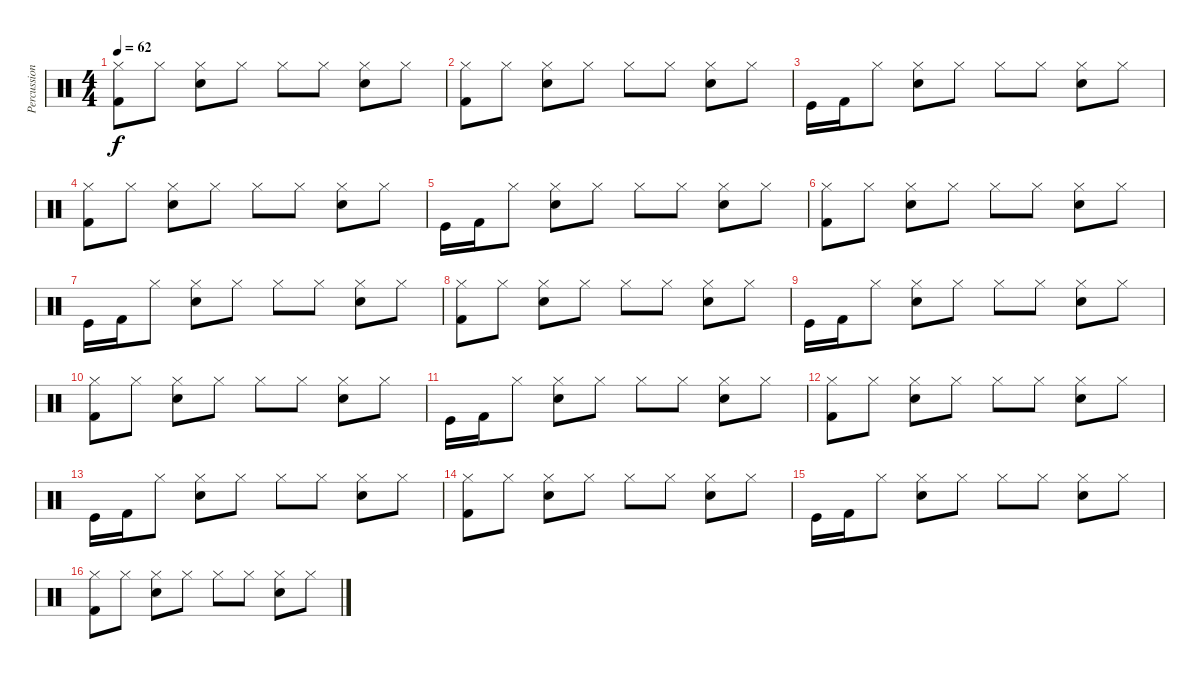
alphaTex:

\track ("Percussion" "Percussion") {instrument percussion}
\staff {score}
\articulation defaults
\ts (4 4)
\tempo 62
\clef neutral
\ks c
("Hi-Hat (closed)" "Kick (hit) 2").8{dy f} "Hi-Hat (closed)".8 ("Hi-Hat (closed)" "Snare (hit) 2").8 "Hi-Hat (closed)".8 "Hi-Hat (closed)".8 "Hi-Hat (closed)".8 ("Hi-Hat (closed)" "Snare (hit) 2").8 "Hi-Hat (closed)".8 |
("Hi-Hat (closed)" "Kick (hit) 2").8 "Hi-Hat (closed)".8 ("Hi-Hat (closed)" "Snare (hit) 2").8 "Hi-Hat (closed)".8 "Hi-Hat (closed)".8 "Hi-Hat (closed)".8 ("Hi-Hat (closed)" "Snare (hit) 2").8 "Hi-Hat (closed)".8 |
"Kick (hit)".16 "Kick (hit) 2".16 "Hi-Hat (closed)".8 ("Hi-Hat (closed)" "Snare (hit) 2").8 "Hi-Hat (closed)".8 "Hi-Hat (closed)".8 "Hi-Hat (closed)".8 ("Hi-Hat (closed)" "Snare (hit) 2").8 "Hi-Hat (closed)".8 |
("Hi-Hat (closed)" "Kick (hit) 2").8 "Hi-Hat (closed)".8 ("Hi-Hat (closed)" "Snare (hit) 2").8 "Hi-Hat (closed)".8 "Hi-Hat (closed)".8 "Hi-Hat (closed)".8 ("Hi-Hat (closed)" "Snare (hit) 2").8 "Hi-Hat (closed)".8 |
"Kick (hit)".16 "Kick (hit) 2".16 "Hi-Hat (closed)".8 ("Hi-Hat (closed)" "Snare (hit) 2").8 "Hi-Hat (closed)".8 "Hi-Hat (closed)".8 "Hi-Hat (closed)".8 ("Hi-Hat (closed)" "Snare (hit) 2").8 "Hi-Hat (closed)".8 |
("Hi-Hat (closed)" "Kick (hit) 2").8 "Hi-Hat (closed)".8 ("Hi-Hat (closed)" "Snare (hit) 2").8 "Hi-Hat (closed)".8 "Hi-Hat (closed)".8 "Hi-Hat (closed)".8 ("Hi-Hat (closed)" "Snare (hit) 2").8 "Hi-Hat (closed)".8 |
"Kick (hit)".16 "Kick (hit) 2".16 "Hi-Hat (closed)".8 ("Hi-Hat (closed)" "Snare (hit) 2").8 "Hi-Hat (closed)".8 "Hi-Hat (closed)".8 "Hi-Hat (closed)".8 ("Hi-Hat (closed)" "Snare (hit) 2").8 "Hi-Hat (closed)".8 |
("Hi-Hat (closed)" "Kick (hit) 2").8 "Hi-Hat (closed)".8 ("Hi-Hat (closed)" "Snare (hit) 2").8 "Hi-Hat (closed)".8 "Hi-Hat (closed)".8 "Hi-Hat (closed)".8 ("Hi-Hat (closed)" "Snare (hit) 2").8 "Hi-Hat (closed)".8 |
"Kick (hit)".16 "Kick (hit) 2".16 "Hi-Hat (closed)".8 ("Hi-Hat (closed)" "Snare (hit) 2").8 "Hi-Hat (closed)".8 "Hi-Hat (closed)".8 "Hi-Hat (closed)".8 ("Hi-Hat (closed)" "Snare (hit) 2").8 "Hi-Hat (closed)".8 |
("Hi-Hat (closed)" "Kick (hit) 2").8 "Hi-Hat (closed)".8 ("Hi-Hat (closed)" "Snare (hit) 2").8 "Hi-Hat (closed)".8 "Hi-Hat (closed)".8 "Hi-Hat (closed)".8 ("Hi-Hat (closed)" "Snare (hit) 2").8 "Hi-Hat (closed)".8 |
"Kick (hit)".16 "Kick (hit) 2".16 "Hi-Hat (closed)".8 ("Hi-Hat (closed)" "Snare (hit) 2").8 "Hi-Hat (closed)".8 "Hi-Hat (closed)".8 "Hi-Hat (closed)".8 ("Hi-Hat (closed)" "Snare (hit) 2").8 "Hi-Hat (closed)".8 |
("Hi-Hat (closed)" "Kick (hit) 2").8 "Hi-Hat (closed)".8 ("Hi-Hat (closed)" "Snare (hit) 2").8 "Hi-Hat (closed)".8 "Hi-Hat (closed)".8 "Hi-Hat (closed)".8 ("Hi-Hat (closed)" "Snare (hit) 2").8 "Hi-Hat (closed)".8 |
"Kick (hit)".16 "Kick (hit) 2".16 "Hi-Hat (closed)".8 ("Hi-Hat (closed)" "Snare (hit) 2").8 "Hi-Hat (closed)".8 "Hi-Hat (closed)".8 "Hi-Hat (closed)".8 ("Hi-Hat (closed)" "Snare (hit) 2").8 "Hi-Hat (closed)".8 |
("Hi-Hat (closed)" "Kick (hit) 2").8 "Hi-Hat (closed)".8 ("Hi-Hat (closed)" "Snare (hit) 2").8 "Hi-Hat (closed)".8 "Hi-Hat (closed)".8 "Hi-Hat (closed)".8 ("Hi-Hat (closed)" "Snare (hit) 2").8 "Hi-Hat (closed)".8 |
"Kick (hit)".16 "Kick (hit) 2".16 "Hi-Hat (closed)".8 ("Hi-Hat (closed)" "Snare (hit) 2").8 "Hi-Hat (closed)".8 "Hi-Hat (closed)".8 "Hi-Hat (closed)".8 ("Hi-Hat (closed)" "Snare (hit) 2").8 "Hi-Hat (closed)".8 |
("Hi-Hat (closed)" "Kick (hit) 2").8 "Hi-Hat (closed)".8 ("Hi-Hat (closed)" "Snare (hit) 2").8 "Hi-Hat (closed)".8 "Hi-Hat (closed)".8 "Hi-Hat (closed)".8 ("Hi-Hat (closed)" "Snare (hit) 2").8 "Hi-Hat (closed)".8
